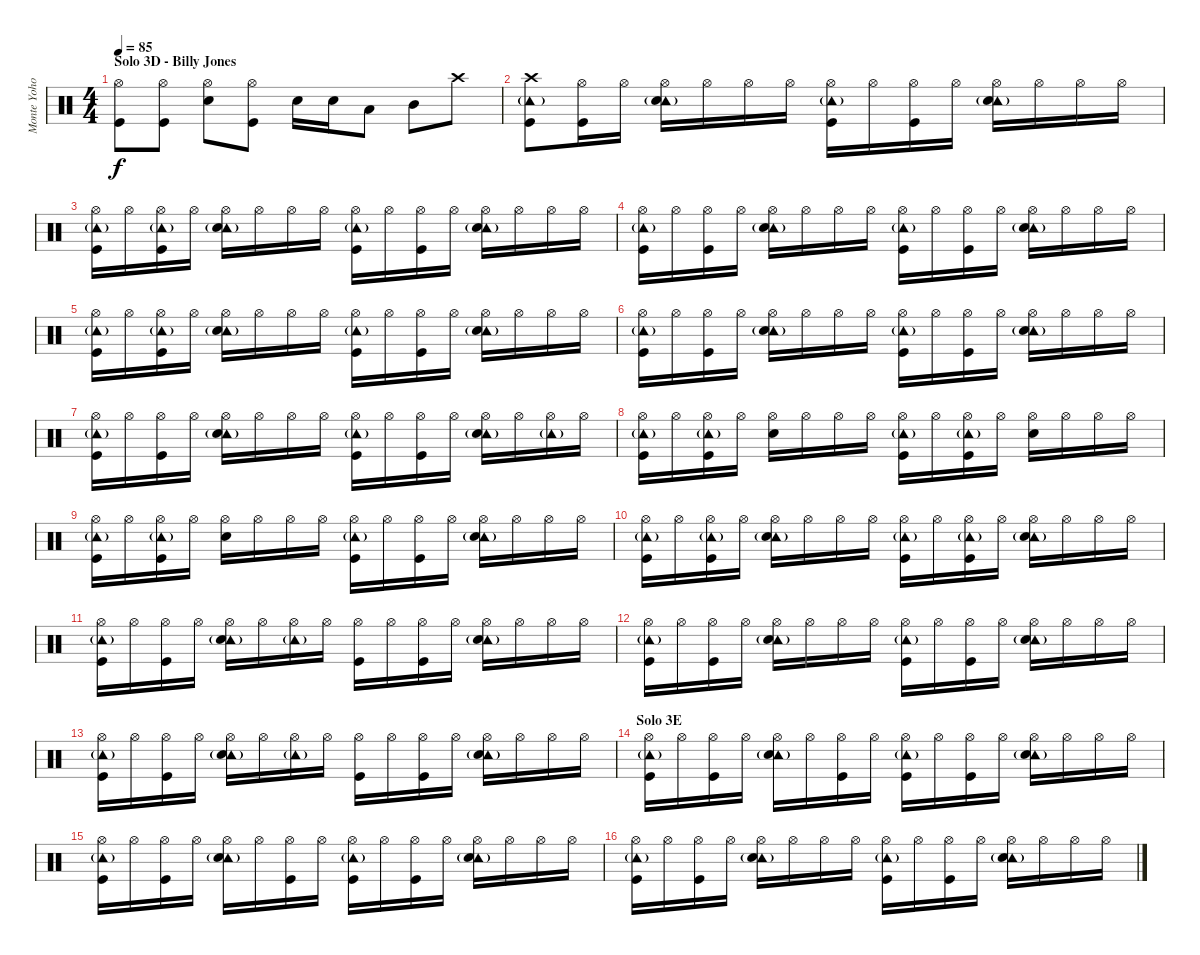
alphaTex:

\track ("Monte Yoho - Drums" "Monte Yoho") {instrument percussion}
\staff {score}
\articulation defaults
\ts (4 4)
\section ("" "Solo 3D - Billy Jones")
\tempo 85
\clef neutral
\ks c
("Hi-Hat (open)" "Kick (hit)").8{dy f} ("Hi-Hat (open)" "Kick (hit)").8 ("Hi-Hat (open)" "Snare (hit) 2").8 ("Hi-Hat (open)" "Kick (hit)").8 "Snare (hit) 2".16 "Snare (hit) 2".16 "Low Tom (hit)".8 "Mid Tom (hit)".8 "Crash high (hit)".8 |
("Crash high (hit)" "Tambourine (hit)"{g} "Kick (hit)").8 ("Hi-Hat (open)" "Kick (hit)").16 "Hi-Hat (open)".16 ("Hi-Hat (open)" "Tambourine (hit)"{g} "Snare (hit) 2").16 "Hi-Hat (open)".16 "Hi-Hat (open)".16 "Hi-Hat (open)".16 ("Hi-Hat (open)" "Tambourine (hit)"{g} "Kick (hit)").16 "Hi-Hat (open)".16 ("Hi-Hat (open)" "Kick (hit)").16 "Hi-Hat (open)".16 ("Hi-Hat (open)" "Tambourine (hit)"{g} "Snare (hit) 2").16 "Hi-Hat (open)".16 "Hi-Hat (open)".16 "Hi-Hat (open)".16 |
("Hi-Hat (open)" "Tambourine (hit)"{g} "Kick (hit)").16 "Hi-Hat (open)".16 ("Hi-Hat (open)" "Tambourine (hit)"{g} "Kick (hit)").16 "Hi-Hat (open)".16 ("Hi-Hat (open)" "Tambourine (hit)"{g} "Snare (hit) 2").16 "Hi-Hat (open)".16 "Hi-Hat (open)".16 "Hi-Hat (open)".16 ("Hi-Hat (open)" "Tambourine (hit)"{g} "Kick (hit)").16 "Hi-Hat (open)".16 ("Hi-Hat (open)" "Kick (hit)").16 "Hi-Hat (open)".16 ("Hi-Hat (open)" "Tambourine (hit)"{g} "Snare (hit) 2").16 "Hi-Hat (open)".16 "Hi-Hat (open)".16 "Hi-Hat (open)".16 |
("Hi-Hat (open)" "Tambourine (hit)"{g} "Kick (hit)").16 "Hi-Hat (open)".16 ("Hi-Hat (open)" "Kick (hit)").16 "Hi-Hat (open)".16 ("Hi-Hat (open)" "Tambourine (hit)"{g} "Snare (hit) 2").16 "Hi-Hat (open)".16 "Hi-Hat (open)".16 "Hi-Hat (open)".16 ("Hi-Hat (open)" "Tambourine (hit)"{g} "Kick (hit)").16 "Hi-Hat (open)".16 ("Hi-Hat (open)" "Kick (hit)").16 "Hi-Hat (open)".16 ("Hi-Hat (open)" "Tambourine (hit)"{g} "Snare (hit) 2").16 "Hi-Hat (open)".16 "Hi-Hat (open)".16 "Hi-Hat (open)".16 |
("Hi-Hat (open)" "Tambourine (hit)"{g} "Kick (hit)").16 "Hi-Hat (open)".16 ("Hi-Hat (open)" "Tambourine (hit)"{g} "Kick (hit)").16 "Hi-Hat (open)".16 ("Hi-Hat (open)" "Tambourine (hit)"{g} "Snare (hit) 2").16 "Hi-Hat (open)".16 "Hi-Hat (open)".16 "Hi-Hat (open)".16 ("Hi-Hat (open)" "Tambourine (hit)"{g} "Kick (hit)").16 "Hi-Hat (open)".16 ("Hi-Hat (open)" "Kick (hit)").16 "Hi-Hat (open)".16 ("Hi-Hat (open)" "Tambourine (hit)"{g} "Snare (hit) 2").16 "Hi-Hat (open)".16 "Hi-Hat (open)".16 "Hi-Hat (open)".16 |
("Hi-Hat (open)" "Tambourine (hit)"{g} "Kick (hit)").16 "Hi-Hat (open)".16 ("Hi-Hat (open)" "Kick (hit)").16 "Hi-Hat (open)".16 ("Hi-Hat (open)" "Tambourine (hit)"{g} "Snare (hit) 2").16 "Hi-Hat (open)".16 "Hi-Hat (open)".16 "Hi-Hat (open)".16 ("Hi-Hat (open)" "Tambourine (hit)"{g} "Kick (hit)").16 "Hi-Hat (open)".16 ("Hi-Hat (open)" "Kick (hit)").16 "Hi-Hat (open)".16 ("Hi-Hat (open)" "Tambourine (hit)"{g} "Snare (hit) 2").16 "Hi-Hat (open)".16 "Hi-Hat (open)".16 "Hi-Hat (open)".16 |
("Hi-Hat (open)" "Tambourine (hit)"{g} "Kick (hit)").16 "Hi-Hat (open)".16 ("Hi-Hat (open)" "Kick (hit)").16 "Hi-Hat (open)".16 ("Hi-Hat (open)" "Tambourine (hit)"{g} "Snare (hit) 2").16 "Hi-Hat (open)".16 "Hi-Hat (open)".16 "Hi-Hat (open)".16 ("Hi-Hat (open)" "Tambourine (hit)"{g} "Kick (hit)").16 "Hi-Hat (open)".16 ("Hi-Hat (open)" "Kick (hit)").16 "Hi-Hat (open)".16 ("Hi-Hat (open)" "Tambourine (hit)"{g} "Snare (hit) 2").16 "Hi-Hat (open)".16 ("Hi-Hat (open)" "Tambourine (hit)"{g}).16 "Hi-Hat (open)".16 |
("Hi-Hat (open)" "Tambourine (hit)"{g} "Kick (hit)").16 "Hi-Hat (open)".16 ("Hi-Hat (open)" "Tambourine (hit)"{g} "Kick (hit)").16 "Hi-Hat (open)".16 ("Hi-Hat (open)" "Snare (hit) 2").16 "Hi-Hat (open)".16 "Hi-Hat (open)".16 "Hi-Hat (open)".16 ("Hi-Hat (open)" "Tambourine (hit)"{g} "Kick (hit)").16 "Hi-Hat (open)".16 ("Hi-Hat (open)" "Tambourine (hit)"{g} "Kick (hit)").16 "Hi-Hat (open)".16 ("Hi-Hat (open)" "Snare (hit) 2").16 "Hi-Hat (open)".16 "Hi-Hat (open)".16 "Hi-Hat (open)".16 |
("Hi-Hat (open)" "Tambourine (hit)"{g} "Kick (hit)").16 "Hi-Hat (open)".16 ("Hi-Hat (open)" "Tambourine (hit)"{g} "Kick (hit)").16 "Hi-Hat (open)".16 ("Hi-Hat (open)" "Snare (hit) 2").16 "Hi-Hat (open)".16 "Hi-Hat (open)".16 "Hi-Hat (open)".16 ("Hi-Hat (open)" "Tambourine (hit)"{g} "Kick (hit)").16 "Hi-Hat (open)".16 ("Hi-Hat (open)" "Kick (hit)").16 "Hi-Hat (open)".16 ("Hi-Hat (open)" "Tambourine (hit)"{g} "Snare (hit) 2").16 "Hi-Hat (open)".16 "Hi-Hat (open)".16 "Hi-Hat (open)".16 |
("Hi-Hat (open)" "Tambourine (hit)"{g} "Kick (hit)").16 "Hi-Hat (open)".16 ("Hi-Hat (open)" "Tambourine (hit)"{g} "Kick (hit)").16 "Hi-Hat (open)".16 ("Hi-Hat (open)" "Tambourine (hit)"{g} "Snare (hit) 2").16 "Hi-Hat (open)".16 "Hi-Hat (open)".16 "Hi-Hat (open)".16 ("Hi-Hat (open)" "Tambourine (hit)"{g} "Kick (hit)").16 "Hi-Hat (open)".16 ("Hi-Hat (open)" "Tambourine (hit)"{g} "Kick (hit)").16 "Hi-Hat (open)".16 ("Hi-Hat (open)" "Tambourine (hit)"{g} "Snare (hit) 2").16 "Hi-Hat (open)".16 "Hi-Hat (open)".16 "Hi-Hat (open)".16 |
("Hi-Hat (open)" "Tambourine (hit)"{g} "Kick (hit)").16 "Hi-Hat (open)".16 ("Hi-Hat (open)" "Kick (hit)").16 "Hi-Hat (open)".16 ("Hi-Hat (open)" "Tambourine (hit)"{g} "Snare (hit) 2").16 "Hi-Hat (open)".16 ("Hi-Hat (open)" "Tambourine (hit)"{g}).16 "Hi-Hat (open)".16 ("Hi-Hat (open)" "Kick (hit)").16 "Hi-Hat (open)".16 ("Hi-Hat (open)" "Kick (hit)").16 "Hi-Hat (open)".16 ("Hi-Hat (open)" "Tambourine (hit)"{g} "Snare (hit) 2").16 "Hi-Hat (open)".16 "Hi-Hat (open)".16 "Hi-Hat (open)".16 |
("Hi-Hat (open)" "Tambourine (hit)"{g} "Kick (hit)").16 "Hi-Hat (open)".16 ("Hi-Hat (open)" "Kick (hit)").16 "Hi-Hat (open)".16 ("Hi-Hat (open)" "Tambourine (hit)"{g} "Snare (hit) 2").16 "Hi-Hat (open)".16 "Hi-Hat (open)".16 "Hi-Hat (open)".16 ("Hi-Hat (open)" "Tambourine (hit)"{g} "Kick (hit)").16 "Hi-Hat (open)".16 ("Hi-Hat (open)" "Kick (hit)").16 "Hi-Hat (open)".16 ("Hi-Hat (open)" "Tambourine (hit)"{g} "Snare (hit) 2").16 "Hi-Hat (open)".16 "Hi-Hat (open)".16 "Hi-Hat (open)".16 |
("Hi-Hat (open)" "Tambourine (hit)"{g} "Kick (hit)").16 "Hi-Hat (open)".16 ("Hi-Hat (open)" "Kick (hit)").16 "Hi-Hat (open)".16 ("Hi-Hat (open)" "Tambourine (hit)"{g} "Snare (hit) 2").16 "Hi-Hat (open)".16 ("Hi-Hat (open)" "Tambourine (hit)"{g}).16 "Hi-Hat (open)".16 ("Hi-Hat (open)" "Kick (hit)").16 "Hi-Hat (open)".16 ("Hi-Hat (open)" "Kick (hit)").16 "Hi-Hat (open)".16 ("Hi-Hat (open)" "Tambourine (hit)"{g} "Snare (hit) 2").16 "Hi-Hat (open)".16 "Hi-Hat (open)".16 "Hi-Hat (open)".16 |
\section ("" "Solo 3E")
("Hi-Hat (open)" "Tambourine (hit)"{g} "Kick (hit)").16 "Hi-Hat (open)".16 ("Hi-Hat (open)" "Kick (hit)").16 "Hi-Hat (open)".16 ("Hi-Hat (open)" "Tambourine (hit)"{g} "Snare (hit) 2").16 "Hi-Hat (open)".16 ("Hi-Hat (open)" "Kick (hit)").16 "Hi-Hat (open)".16 ("Hi-Hat (open)" "Tambourine (hit)"{g} "Kick (hit)").16 "Hi-Hat (open)".16 ("Hi-Hat (open)" "Kick (hit)").16 "Hi-Hat (open)".16 ("Hi-Hat (open)" "Tambourine (hit)"{g} "Snare (hit) 2").16 "Hi-Hat (open)".16 "Hi-Hat (open)".16 "Hi-Hat (open)".16 |
("Hi-Hat (open)" "Tambourine (hit)"{g} "Kick (hit)").16 "Hi-Hat (open)".16 ("Hi-Hat (open)" "Kick (hit)").16 "Hi-Hat (open)".16 ("Hi-Hat (open)" "Tambourine (hit)"{g} "Snare (hit) 2").16 "Hi-Hat (open)".16 ("Hi-Hat (open)" "Kick (hit)").16 "Hi-Hat (open)".16 ("Hi-Hat (open)" "Tambourine (hit)"{g} "Kick (hit)").16 "Hi-Hat (open)".16 ("Hi-Hat (open)" "Kick (hit)").16 "Hi-Hat (open)".16 ("Hi-Hat (open)" "Tambourine (hit)"{g} "Snare (hit) 2").16 "Hi-Hat (open)".16 "Hi-Hat (open)".16 "Hi-Hat (open)".16 |
("Hi-Hat (open)" "Tambourine (hit)"{g} "Kick (hit)").16 "Hi-Hat (open)".16 ("Hi-Hat (open)" "Kick (hit)").16 "Hi-Hat (open)".16 ("Hi-Hat (open)" "Tambourine (hit)"{g} "Snare (hit) 2").16 "Hi-Hat (open)".16 "Hi-Hat (open)".16 "Hi-Hat (open)".16 ("Hi-Hat (open)" "Tambourine (hit)"{g} "Kick (hit)").16 "Hi-Hat (open)".16 ("Hi-Hat (open)" "Kick (hit)").16 "Hi-Hat (open)".16 ("Hi-Hat (open)" "Tambourine (hit)"{g} "Snare (hit) 2").16 "Hi-Hat (open)".16 "Hi-Hat (open)".16 "Hi-Hat (open)".16
